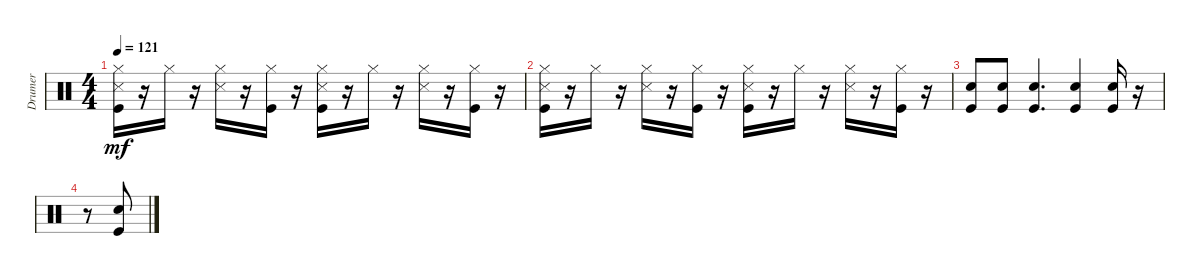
\track ("Drumer" "Drumer") {instrument percussion}
\staff {score}
\articulation defaults
\ts (4 4)
\tempo 121
\clef neutral
\ks c
("Hi-Hat (closed)" "Snare (side stick) 3" "Kick (hit)").16{dy mf} r.16 "Hi-Hat (closed)".16 r.16 ("Hi-Hat (closed)" "Snare (side stick) 3").16 r.16 ("Hi-Hat (closed)" "Kick (hit)").16 r.16 ("Hi-Hat (closed)" "Snare (side stick) 3" "Kick (hit)").16 r.16 "Hi-Hat (closed)".16 r.16 ("Hi-Hat (closed)" "Snare (side stick) 3").16 r.16 ("Hi-Hat (closed)" "Kick (hit)").16 r.16 |
("Hi-Hat (closed)" "Snare (side stick) 3" "Kick (hit)").16 r.16 "Hi-Hat (closed)".16 r.16 ("Hi-Hat (closed)" "Snare (side stick) 3").16 r.16 ("Hi-Hat (closed)" "Kick (hit)").16 r.16 ("Hi-Hat (closed)" "Snare (side stick) 3" "Kick (hit)").16 r.16 "Hi-Hat (closed)".16 r.16 ("Hi-Hat (closed)" "Snare (side stick) 3").16 r.16 ("Hi-Hat (closed)" "Kick (hit)").16 r.16 |
("Kick (hit)" "Snare (hit) 2").8 ("Snare (hit) 2" "Kick (hit)").8 ("Snare (hit) 2" "Kick (hit)").4{d} ("Snare (hit) 2" "Kick (hit)").4 ("Kick (hit)" "Snare (hit) 2").16 r.16 |
r.8 ("Snare (hit) 2" "Kick (hit)").8
